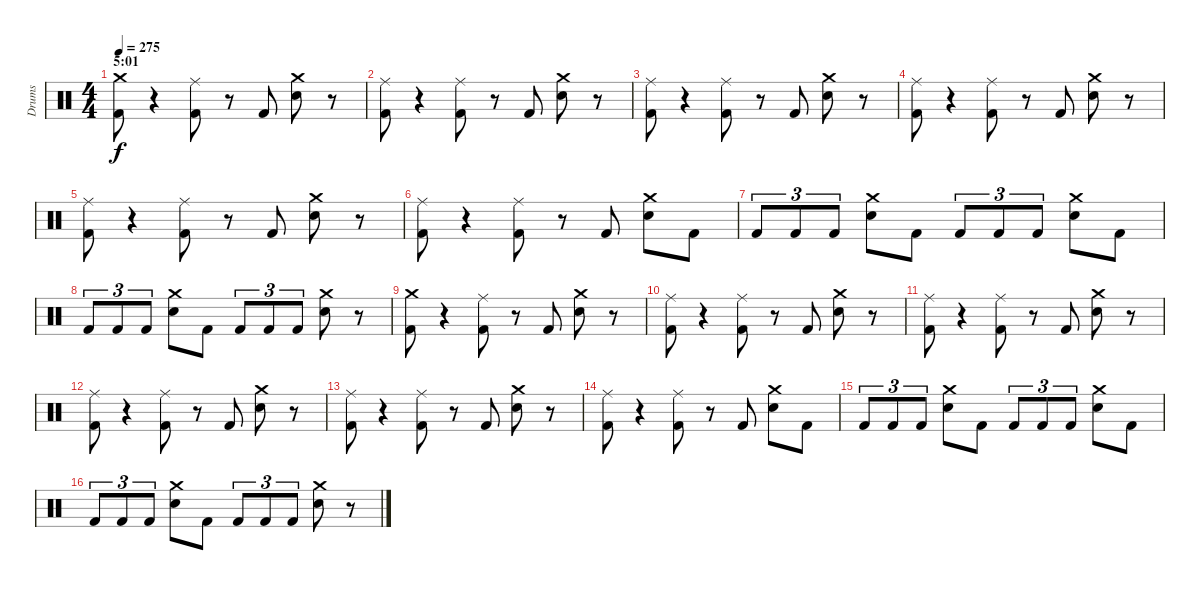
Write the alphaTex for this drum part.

\track ("Drums" "Drums") {instrument percussion}
\staff {score}
\articulation defaults
\ts (4 4)
\section ("" "5:01")
\tempo 275
\clef neutral
\ks c
("Crash medium (hit)" "Kick (hit) 2").8{dy f} r.4 ("Ride (middle)" "Kick (hit) 2").8 r.8 "Kick (hit) 2".8 ("Crash medium (hit)" "Electric Snare (hit)").8 r.8 |
("Ride (middle)" "Kick (hit) 2").8 r.4 ("Ride (middle)" "Kick (hit) 2").8 r.8 "Kick (hit) 2".8 ("Crash medium (hit)" "Electric Snare (hit)").8 r.8 |
("Ride (middle)" "Kick (hit) 2").8 r.4 ("Ride (middle)" "Kick (hit) 2").8 r.8 "Kick (hit) 2".8 ("Crash medium (hit)" "Electric Snare (hit)").8 r.8 |
("Ride (middle)" "Kick (hit) 2").8 r.4 ("Ride (middle)" "Kick (hit) 2").8 r.8 "Kick (hit) 2".8 ("Crash medium (hit)" "Electric Snare (hit)").8 r.8 |
("Ride (middle)" "Kick (hit) 2").8 r.4 ("Ride (middle)" "Kick (hit) 2").8 r.8 "Kick (hit) 2".8 ("Crash medium (hit)" "Electric Snare (hit)").8 r.8 |
("Ride (middle)" "Kick (hit) 2").8 r.4 ("Ride (middle)" "Kick (hit) 2").8 r.8 "Kick (hit) 2".8 ("Crash medium (hit)" "Electric Snare (hit)").8 "Kick (hit) 2".8 |
"Kick (hit) 2".8{tu (3 2)} "Kick (hit) 2".8{tu (3 2)} "Kick (hit) 2".8{tu (3 2)} ("Crash medium (hit)" "Electric Snare (hit)").8 "Kick (hit) 2".8 "Kick (hit) 2".8{tu (3 2)} "Kick (hit) 2".8{tu (3 2)} "Kick (hit) 2".8{tu (3 2)} ("Crash medium (hit)" "Electric Snare (hit)").8 "Kick (hit) 2".8 |
"Kick (hit) 2".8{tu (3 2)} "Kick (hit) 2".8{tu (3 2)} "Kick (hit) 2".8{tu (3 2)} ("Crash medium (hit)" "Electric Snare (hit)").8 "Kick (hit) 2".8 "Kick (hit) 2".8{tu (3 2)} "Kick (hit) 2".8{tu (3 2)} "Kick (hit) 2".8{tu (3 2)} ("Crash medium (hit)" "Electric Snare (hit)").8 r.8 |
("Crash medium (hit)" "Kick (hit) 2").8 r.4 ("Ride (middle)" "Kick (hit) 2").8 r.8 "Kick (hit) 2".8 ("Crash medium (hit)" "Electric Snare (hit)").8 r.8 |
("Ride (middle)" "Kick (hit) 2").8 r.4 ("Ride (middle)" "Kick (hit) 2").8 r.8 "Kick (hit) 2".8 ("Crash medium (hit)" "Electric Snare (hit)").8 r.8 |
("Ride (middle)" "Kick (hit) 2").8 r.4 ("Ride (middle)" "Kick (hit) 2").8 r.8 "Kick (hit) 2".8 ("Crash medium (hit)" "Electric Snare (hit)").8 r.8 |
("Ride (middle)" "Kick (hit) 2").8 r.4 ("Ride (middle)" "Kick (hit) 2").8 r.8 "Kick (hit) 2".8 ("Crash medium (hit)" "Electric Snare (hit)").8 r.8 |
("Ride (middle)" "Kick (hit) 2").8 r.4 ("Ride (middle)" "Kick (hit) 2").8 r.8 "Kick (hit) 2".8 ("Crash medium (hit)" "Electric Snare (hit)").8 r.8 |
("Ride (middle)" "Kick (hit) 2").8 r.4 ("Ride (middle)" "Kick (hit) 2").8 r.8 "Kick (hit) 2".8 ("Crash medium (hit)" "Electric Snare (hit)").8 "Kick (hit) 2".8 |
"Kick (hit) 2".8{tu (3 2)} "Kick (hit) 2".8{tu (3 2)} "Kick (hit) 2".8{tu (3 2)} ("Crash medium (hit)" "Electric Snare (hit)").8 "Kick (hit) 2".8 "Kick (hit) 2".8{tu (3 2)} "Kick (hit) 2".8{tu (3 2)} "Kick (hit) 2".8{tu (3 2)} ("Crash medium (hit)" "Electric Snare (hit)").8 "Kick (hit) 2".8 |
"Kick (hit) 2".8{tu (3 2)} "Kick (hit) 2".8{tu (3 2)} "Kick (hit) 2".8{tu (3 2)} ("Crash medium (hit)" "Electric Snare (hit)").8 "Kick (hit) 2".8 "Kick (hit) 2".8{tu (3 2)} "Kick (hit) 2".8{tu (3 2)} "Kick (hit) 2".8{tu (3 2)} ("Crash medium (hit)" "Electric Snare (hit)").8 r.8
